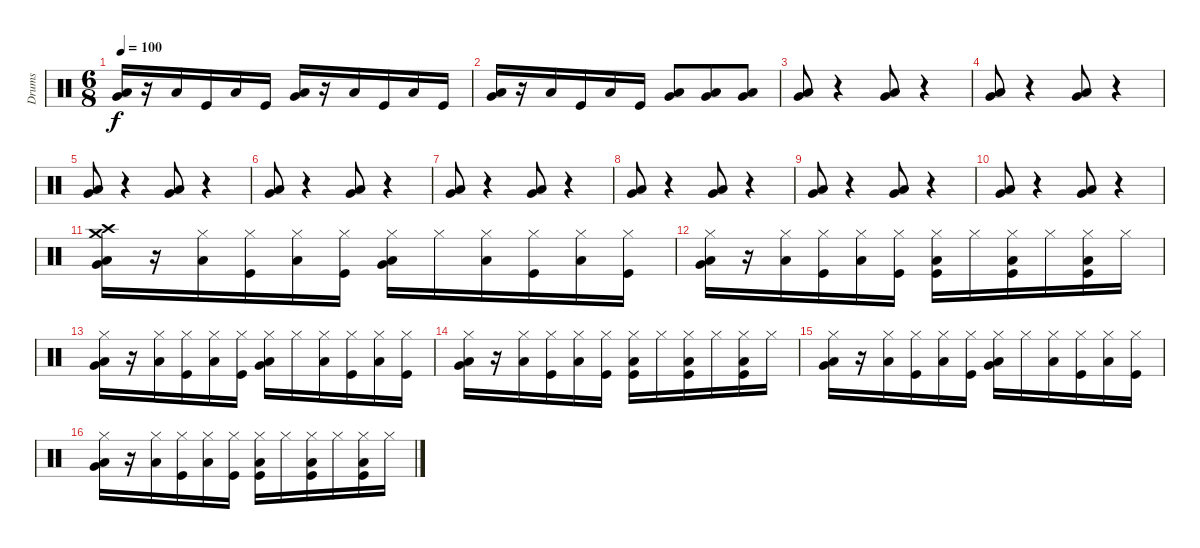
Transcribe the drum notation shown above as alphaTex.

\track ("Drums" "Drums") {instrument percussion}
\staff {score}
\articulation defaults
\ts (6 8)
\tempo 100
\clef neutral
\ks c
("Low Floor Tom (hit)" "Very Low Tom (hit)").16{dy f} r.16 "Low Floor Tom (hit)".16 "Kick (hit)".16 "Low Floor Tom (hit)".16 "Kick (hit)".16 ("Low Floor Tom (hit)" "Very Low Tom (hit)").16 r.16 "Low Floor Tom (hit)".16 "Kick (hit)".16 "Low Floor Tom (hit)".16 "Kick (hit)".16 |
("Low Floor Tom (hit)" "Very Low Tom (hit)").16 r.16 "Low Floor Tom (hit)".16 "Kick (hit)".16 "Low Floor Tom (hit)".16 "Kick (hit)".16 ("Low Floor Tom (hit)" "Very Low Tom (hit)").8 ("Low Floor Tom (hit)" "Very Low Tom (hit)").8 ("Low Floor Tom (hit)" "Very Low Tom (hit)").8 |
("Low Floor Tom (hit)" "Very Low Tom (hit)").8 r.4 ("Low Floor Tom (hit)" "Very Low Tom (hit)").8 r.4 |
("Low Floor Tom (hit)" "Very Low Tom (hit)").8 r.4 ("Low Floor Tom (hit)" "Very Low Tom (hit)").8 r.4 |
("Low Floor Tom (hit)" "Very Low Tom (hit)").8 r.4 ("Low Floor Tom (hit)" "Very Low Tom (hit)").8 r.4 |
("Low Floor Tom (hit)" "Very Low Tom (hit)").8 r.4 ("Low Floor Tom (hit)" "Very Low Tom (hit)").8 r.4 |
("Low Floor Tom (hit)" "Very Low Tom (hit)").8 r.4 ("Low Floor Tom (hit)" "Very Low Tom (hit)").8 r.4 |
("Low Floor Tom (hit)" "Very Low Tom (hit)").8 r.4 ("Low Floor Tom (hit)" "Very Low Tom (hit)").8 r.4 |
("Low Floor Tom (hit)" "Very Low Tom (hit)").8 r.4 ("Low Floor Tom (hit)" "Very Low Tom (hit)").8 r.4 |
("Low Floor Tom (hit)" "Very Low Tom (hit)").8 r.4 ("Low Floor Tom (hit)" "Very Low Tom (hit)").8 r.4 |
("Crash medium (hit)" "Crash high (hit)" "Low Floor Tom (hit)" "Very Low Tom (hit)").16 r.16 ("Hi-Hat (closed)" "Low Floor Tom (hit)").16 ("Hi-Hat (closed)" "Kick (hit)").16 ("Hi-Hat (closed)" "Low Floor Tom (hit)").16 ("Hi-Hat (closed)" "Kick (hit)").16 ("Hi-Hat (closed)" "Low Floor Tom (hit)" "Very Low Tom (hit)").16 "Hi-Hat (closed)".16 ("Hi-Hat (closed)" "Low Floor Tom (hit)").16 ("Hi-Hat (closed)" "Kick (hit)").16 ("Hi-Hat (closed)" "Low Floor Tom (hit)").16 ("Hi-Hat (closed)" "Kick (hit)").16 |
("Hi-Hat (closed)" "Low Floor Tom (hit)" "Very Low Tom (hit)").16 r.16 ("Hi-Hat (closed)" "Low Floor Tom (hit)").16 ("Hi-Hat (closed)" "Kick (hit)").16 ("Hi-Hat (closed)" "Low Floor Tom (hit)").16 ("Hi-Hat (closed)" "Kick (hit)").16 ("Hi-Hat (closed)" "Low Floor Tom (hit)" "Kick (hit)").16 "Hi-Hat (closed)".16 ("Hi-Hat (closed)" "Low Floor Tom (hit)" "Kick (hit)").16 "Hi-Hat (closed)".16 ("Hi-Hat (closed)" "Low Floor Tom (hit)" "Kick (hit)").16 "Hi-Hat (closed)".16 |
("Hi-Hat (closed)" "Low Floor Tom (hit)" "Very Low Tom (hit)").16 r.16 ("Hi-Hat (closed)" "Low Floor Tom (hit)").16 ("Hi-Hat (closed)" "Kick (hit)").16 ("Hi-Hat (closed)" "Low Floor Tom (hit)").16 ("Hi-Hat (closed)" "Kick (hit)").16 ("Hi-Hat (closed)" "Low Floor Tom (hit)" "Very Low Tom (hit)").16 "Hi-Hat (closed)".16 ("Hi-Hat (closed)" "Low Floor Tom (hit)").16 ("Hi-Hat (closed)" "Kick (hit)").16 ("Hi-Hat (closed)" "Low Floor Tom (hit)").16 ("Hi-Hat (closed)" "Kick (hit)").16 |
("Hi-Hat (closed)" "Low Floor Tom (hit)" "Very Low Tom (hit)").16 r.16 ("Hi-Hat (closed)" "Low Floor Tom (hit)").16 ("Hi-Hat (closed)" "Kick (hit)").16 ("Hi-Hat (closed)" "Low Floor Tom (hit)").16 ("Hi-Hat (closed)" "Kick (hit)").16 ("Hi-Hat (closed)" "Low Floor Tom (hit)" "Kick (hit)").16 "Hi-Hat (closed)".16 ("Hi-Hat (closed)" "Low Floor Tom (hit)" "Kick (hit)").16 "Hi-Hat (closed)".16 ("Hi-Hat (closed)" "Low Floor Tom (hit)" "Kick (hit)").16 "Hi-Hat (closed)".16 |
("Hi-Hat (closed)" "Low Floor Tom (hit)" "Very Low Tom (hit)").16 r.16 ("Hi-Hat (closed)" "Low Floor Tom (hit)").16 ("Hi-Hat (closed)" "Kick (hit)").16 ("Hi-Hat (closed)" "Low Floor Tom (hit)").16 ("Hi-Hat (closed)" "Kick (hit)").16 ("Hi-Hat (closed)" "Low Floor Tom (hit)" "Very Low Tom (hit)").16 "Hi-Hat (closed)".16 ("Hi-Hat (closed)" "Low Floor Tom (hit)").16 ("Hi-Hat (closed)" "Kick (hit)").16 ("Hi-Hat (closed)" "Low Floor Tom (hit)").16 ("Hi-Hat (closed)" "Kick (hit)").16 |
("Hi-Hat (closed)" "Low Floor Tom (hit)" "Very Low Tom (hit)").16 r.16 ("Hi-Hat (closed)" "Low Floor Tom (hit)").16 ("Hi-Hat (closed)" "Kick (hit)").16 ("Hi-Hat (closed)" "Low Floor Tom (hit)").16 ("Hi-Hat (closed)" "Kick (hit)").16 ("Hi-Hat (closed)" "Low Floor Tom (hit)" "Kick (hit)").16 "Hi-Hat (closed)".16 ("Hi-Hat (closed)" "Low Floor Tom (hit)" "Kick (hit)").16 "Hi-Hat (closed)".16 ("Hi-Hat (closed)" "Low Floor Tom (hit)" "Kick (hit)").16 "Hi-Hat (closed)".16
